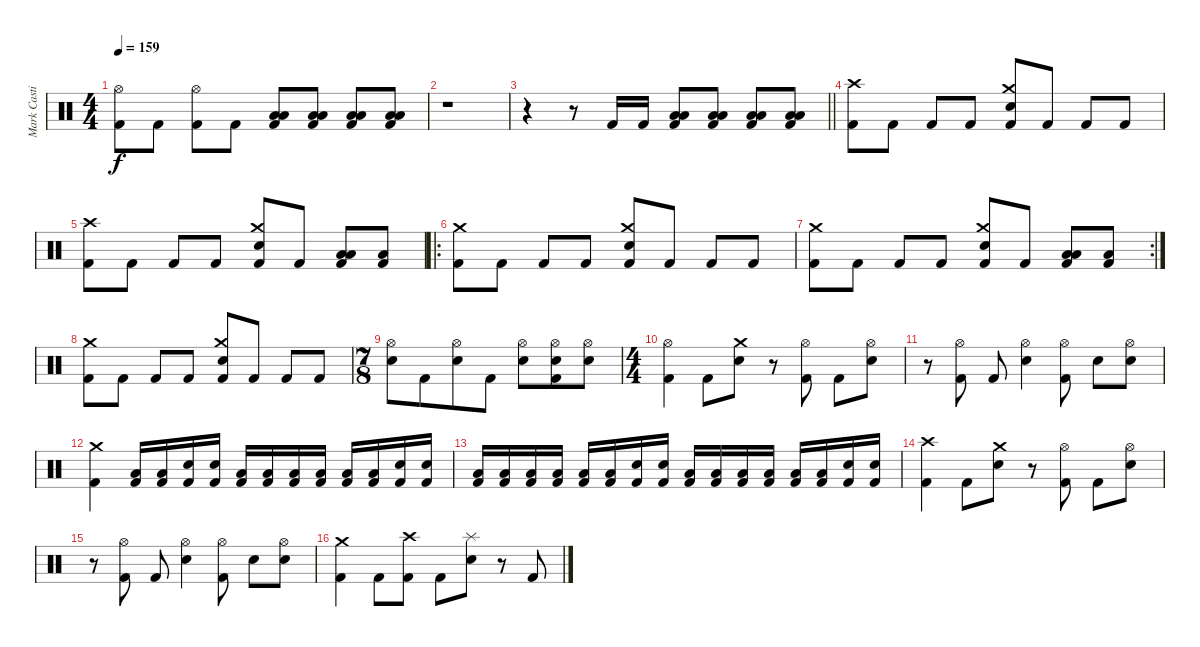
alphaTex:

\track ("Mark Castillo" "Mark Casti") {instrument percussion}
\staff {score}
\articulation defaults
\ts (4 4)
\tempo 159
\clef neutral
\ks c
("Hi-Hat (open)" "Kick (hit) 2").8{dy f} "Kick (hit) 2".8 ("Hi-Hat (open)" "Kick (hit) 2").8 "Kick (hit) 2".8 ("Low Floor Tom (hit)" "Low Floor Tom (hit)" "Kick (hit) 2").8 ("Low Floor Tom (hit)" "Low Floor Tom (hit)" "Kick (hit) 2").8 ("Low Floor Tom (hit)" "Low Floor Tom (hit)" "Kick (hit) 2").8 ("Low Floor Tom (hit)" "Low Floor Tom (hit)" "Kick (hit) 2").8 |
r.1 |
\barLineRight lightlight
r.4 r.8 "Kick (hit) 2".16 "Kick (hit) 2".16 ("Low Floor Tom (hit)" "Low Floor Tom (hit)" "Kick (hit) 2").8 ("Low Floor Tom (hit)" "Low Floor Tom (hit)" "Kick (hit) 2").8 ("Low Floor Tom (hit)" "Low Floor Tom (hit)" "Kick (hit) 2").8 ("Low Floor Tom (hit)" "Low Floor Tom (hit)" "Kick (hit) 2").8 |
("Crash high (hit)" "Kick (hit) 2").8 "Kick (hit) 2".8 "Kick (hit) 2".8 "Kick (hit) 2".8 ("Crash medium (hit)" "Snare (hit) 2" "Kick (hit) 2").8 "Kick (hit) 2".8 "Kick (hit) 2".8 "Kick (hit) 2".8 |
("Crash high (hit)" "Kick (hit) 2").8 "Kick (hit) 2".8 "Kick (hit) 2".8 "Kick (hit) 2".8 ("Crash medium (hit)" "Snare (hit) 2" "Kick (hit) 2").8 "Kick (hit) 2".8 ("Low Floor Tom (hit)" "Low Floor Tom (hit)" "Kick (hit) 2").8 ("Low Floor Tom (hit)" "Kick (hit) 2").8 |
\ro
("Crash medium (hit)" "Kick (hit) 2").8 "Kick (hit) 2".8 "Kick (hit) 2".8 "Kick (hit) 2".8 ("Crash medium (hit)" "Snare (hit) 2" "Kick (hit) 2").8 "Kick (hit) 2".8 "Kick (hit) 2".8 "Kick (hit) 2".8 |
\rc 2
("Crash medium (hit)" "Kick (hit) 2").8 "Kick (hit) 2".8 "Kick (hit) 2".8 "Kick (hit) 2".8 ("Crash medium (hit)" "Snare (hit) 2" "Kick (hit) 2").8 "Kick (hit) 2".8 ("Low Floor Tom (hit)" "Low Floor Tom (hit)" "Kick (hit) 2").8 ("Low Floor Tom (hit)" "Kick (hit) 2").8 |
("Crash medium (hit)" "Kick (hit) 2").8 "Kick (hit) 2".8 "Kick (hit) 2".8 "Kick (hit) 2".8 ("Crash medium (hit)" "Snare (hit) 2" "Kick (hit) 2").8 "Kick (hit) 2".8 "Kick (hit) 2".8 "Kick (hit) 2".8 |
\ts (7 8)
("Hi-Hat (open)" "Snare (hit) 2").8 "Kick (hit) 2".8 ("Hi-Hat (open)" "Snare (hit) 2").8 "Kick (hit) 2".8 ("Hi-Hat (open)" "Snare (hit) 2").8 ("Hi-Hat (open)" "Snare (hit) 2" "Kick (hit) 2").8 ("Hi-Hat (open)" "Snare (hit) 2").8 |
\ts (4 4)
("Hi-Hat (open)" "Kick (hit) 2").4 "Kick (hit) 2".8 ("Crash medium (hit)" "Snare (hit) 2").8 r.8 ("Hi-Hat (open)" "Kick (hit) 2").8 "Kick (hit) 2".8 ("Hi-Hat (open)" "Snare (hit) 2").8 |
r.8 ("Hi-Hat (open)" "Kick (hit) 2").8 "Kick (hit) 2".8 ("Hi-Hat (open)" "Snare (hit) 2").4 ("Hi-Hat (open)" "Kick (hit) 2").8 "Snare (hit) 2".8 ("Hi-Hat (open)" "Snare (hit) 2").8 |
("Crash medium (hit)" "Kick (hit) 2").4 ("Low Tom (hit)" "Kick (hit) 2").16 ("Low Tom (hit)" "Kick (hit) 2").16 ("Snare (hit) 2" "Kick (hit) 2").16 ("Snare (hit) 2" "Kick (hit) 2").16 ("Low Tom (hit)" "Kick (hit) 2").16 ("Low Tom (hit)" "Kick (hit) 2").16 ("Low Tom (hit)" "Kick (hit) 2").16 ("Low Tom (hit)" "Kick (hit) 2").16 ("Low Tom (hit)" "Kick (hit) 2").16 ("Low Tom (hit)" "Kick (hit) 2").16 ("Snare (hit) 2" "Kick (hit) 2").16 ("Snare (hit) 2" "Kick (hit) 2").16 |
("Low Tom (hit)" "Kick (hit) 2").16 ("Low Tom (hit)" "Kick (hit) 2").16 ("Low Tom (hit)" "Kick (hit) 2").16 ("Low Tom (hit)" "Kick (hit) 2").16 ("Low Tom (hit)" "Kick (hit) 2").16 ("Low Tom (hit)" "Kick (hit) 2").16 ("Snare (hit) 2" "Kick (hit) 2").16 ("Snare (hit) 2" "Kick (hit) 2").16 ("Low Tom (hit)" "Kick (hit) 2").16 ("Low Tom (hit)" "Kick (hit) 2").16 ("Low Tom (hit)" "Kick (hit) 2").16 ("Low Tom (hit)" "Kick (hit) 2").16 ("Low Tom (hit)" "Kick (hit) 2").16 ("Low Tom (hit)" "Kick (hit) 2").16 ("Snare (hit) 2" "Kick (hit) 2").16 ("Snare (hit) 2" "Kick (hit) 2").16 |
("Crash high (hit)" "Kick (hit) 2").4 "Kick (hit) 2".8 ("Crash medium (hit)" "Snare (hit) 2").8 r.8 ("Hi-Hat (open)" "Kick (hit) 2").8 "Kick (hit) 2".8 ("Hi-Hat (open)" "Snare (hit) 2").8 |
r.8 ("Hi-Hat (open)" "Kick (hit) 2").8 "Kick (hit) 2".8 ("Hi-Hat (open)" "Snare (hit) 2").4 ("Hi-Hat (open)" "Kick (hit) 2").8 "Snare (hit) 2".8 ("Hi-Hat (open)" "Snare (hit) 2").8 |
("Crash medium (hit)" "Kick (hit) 2").4 "Kick (hit) 2".8 ("Crash high (hit)" "Kick (hit) 2").8 "Kick (hit) 2".8 ("Splash (hit)" "Snare (hit) 2").8 r.8 "Kick (hit) 2".8
